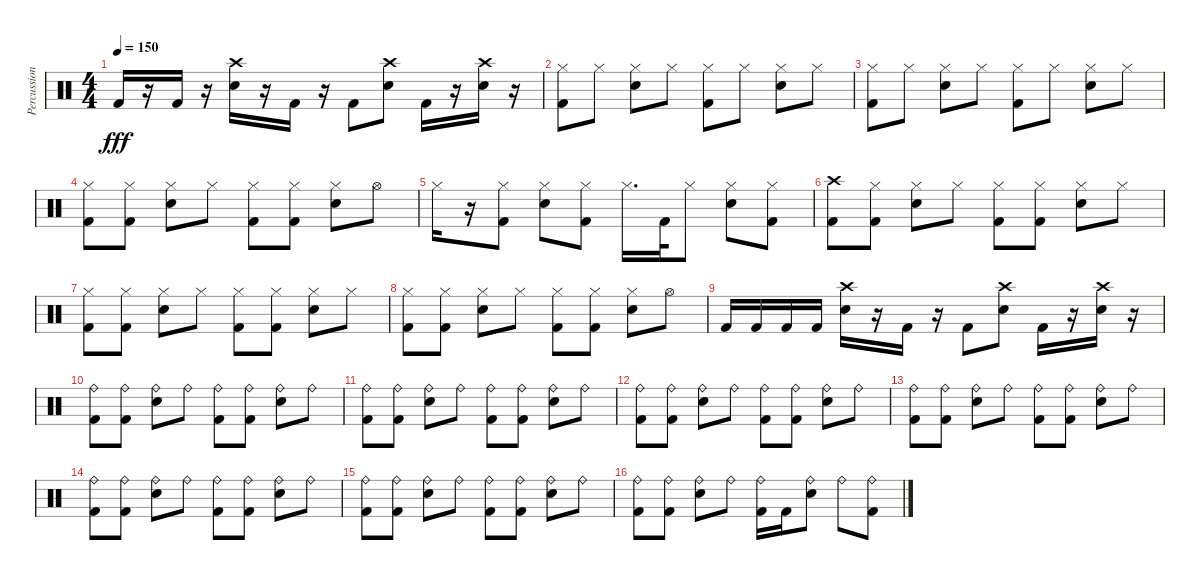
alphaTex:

\track ("Percussion" "Percussion") {instrument percussion}
\staff {score}
\articulation defaults
\ts (4 4)
\tempo 150
\clef neutral
\ks c "Kick (hit) 2".16{dy fff}
r.16 "Kick (hit) 2".16 r.16 ("Snare (hit) 2" "Crash high (hit)").16 r.16 "Kick (hit) 2".16 r.16 "Kick (hit) 2".8 ("Snare (hit) 2" "Crash high (hit)").8 "Kick (hit) 2".16 r.16 ("Snare (hit) 2" "Crash high (hit)").16 r.16 |
("Hi-Hat (closed)" "Kick (hit) 2").8 "Hi-Hat (closed)".8 ("Snare (hit) 2" "Hi-Hat (closed)").8 "Hi-Hat (closed)".8 ("Kick (hit) 2" "Hi-Hat (closed)").8 "Hi-Hat (closed)".8 ("Snare (hit) 2" "Hi-Hat (closed)").8 "Hi-Hat (closed)".8 |
("Kick (hit) 2" "Hi-Hat (closed)").8 "Hi-Hat (closed)".8 ("Snare (hit) 2" "Hi-Hat (closed)").8 "Hi-Hat (closed)".8 ("Kick (hit) 2" "Hi-Hat (closed)").8 "Hi-Hat (closed)".8 ("Snare (hit) 2" "Hi-Hat (closed)").8 "Hi-Hat (closed)".8 |
("Kick (hit) 2" "Hi-Hat (closed)").8 ("Kick (hit) 2" "Hi-Hat (closed)").8 ("Snare (hit) 2" "Hi-Hat (closed)").8 "Hi-Hat (closed)".8 ("Kick (hit) 2" "Hi-Hat (closed)").8 ("Kick (hit) 2" "Hi-Hat (closed)").8 ("Snare (hit) 2" "Hi-Hat (closed)").8 "Hi-Hat (open)".8 |
"Hi-Hat (closed)".16 r.16 ("Kick (hit) 2" "Hi-Hat (closed)").8 ("Snare (hit) 2" "Hi-Hat (closed)").8 ("Hi-Hat (closed)" "Kick (hit) 2").8 "Hi-Hat (closed)".16{d} "Kick (hit) 2".32 "Hi-Hat (closed)".8 ("Snare (hit) 2" "Hi-Hat (closed)").8 ("Hi-Hat (closed)" "Kick (hit) 2").8 |
("Kick (hit) 2" "Crash high (hit)").8 ("Kick (hit) 2" "Hi-Hat (closed)").8 ("Snare (hit) 2" "Hi-Hat (closed)").8 "Hi-Hat (closed)".8 ("Kick (hit) 2" "Hi-Hat (closed)").8 ("Kick (hit) 2" "Hi-Hat (closed)").8 ("Snare (hit) 2" "Hi-Hat (closed)").8 "Hi-Hat (closed)".8 |
("Kick (hit) 2" "Hi-Hat (closed)").8 ("Kick (hit) 2" "Hi-Hat (closed)").8 ("Snare (hit) 2" "Hi-Hat (closed)").8 "Hi-Hat (closed)".8 ("Kick (hit) 2" "Hi-Hat (closed)").8 ("Kick (hit) 2" "Hi-Hat (closed)").8 ("Snare (hit) 2" "Hi-Hat (closed)").8 "Hi-Hat (closed)".8 |
("Hi-Hat (closed)" "Kick (hit) 2").8 ("Kick (hit) 2" "Hi-Hat (closed)").8 ("Snare (hit) 2" "Hi-Hat (closed)").8 "Hi-Hat (closed)".8 ("Kick (hit) 2" "Hi-Hat (closed)").8 ("Kick (hit) 2" "Hi-Hat (closed)").8 ("Snare (hit) 2" "Hi-Hat (closed)").8 "Hi-Hat (open)".8 |
"Kick (hit) 2".16 "Kick (hit) 2".16 "Kick (hit) 2".16 "Kick (hit) 2".16 ("Snare (hit) 2" "Crash high (hit)").16 r.16 "Kick (hit) 2".16 r.16 "Kick (hit) 2".8 ("Snare (hit) 2" "Crash high (hit)").8 "Kick (hit) 2".16 r.16 ("Snare (hit) 2" "Crash high (hit)").16 r.16 |
("Ride (bell)" "Kick (hit) 2").8 ("Kick (hit) 2" "Ride (bell)").8 ("Snare (hit) 2" "Ride (bell)").8 "Ride (bell)".8 ("Kick (hit) 2" "Ride (bell)").8 ("Kick (hit) 2" "Ride (bell)").8 ("Snare (hit) 2" "Ride (bell)").8 "Ride (bell)".8 |
("Ride (bell)" "Kick (hit) 2").8 ("Kick (hit) 2" "Ride (bell)").8 ("Snare (hit) 2" "Ride (bell)").8 "Ride (bell)".8 ("Kick (hit) 2" "Ride (bell)").8 ("Kick (hit) 2" "Ride (bell)").8 ("Snare (hit) 2" "Ride (bell)").8 "Ride (bell)".8 |
("Ride (bell)" "Kick (hit) 2").8 ("Kick (hit) 2" "Ride (bell)").8 ("Snare (hit) 2" "Ride (bell)").8 "Ride (bell)".8 ("Kick (hit) 2" "Ride (bell)").8 ("Kick (hit) 2" "Ride (bell)").8 ("Snare (hit) 2" "Ride (bell)").8 "Ride (bell)".8 |
("Ride (bell)" "Kick (hit) 2").8 ("Kick (hit) 2" "Ride (bell)").8 ("Snare (hit) 2" "Ride (bell)").8 "Ride (bell)".8 ("Kick (hit) 2" "Ride (bell)").8 ("Kick (hit) 2" "Ride (bell)").8 ("Snare (hit) 2" "Ride (bell)").8 "Ride (bell)".8 |
("Ride (bell)" "Kick (hit) 2").8 ("Kick (hit) 2" "Ride (bell)").8 ("Snare (hit) 2" "Ride (bell)").8 "Ride (bell)".8 ("Kick (hit) 2" "Ride (bell)").8 ("Kick (hit) 2" "Ride (bell)").8 ("Snare (hit) 2" "Ride (bell)").8 "Ride (bell)".8 |
("Kick (hit) 2" "Ride (bell)").8 ("Kick (hit) 2" "Ride (bell)").8 ("Snare (hit) 2" "Ride (bell)").8 "Ride (bell)".8 ("Kick (hit) 2" "Ride (bell)").8 ("Kick (hit) 2" "Ride (bell)").8 ("Snare (hit) 2" "Ride (bell)").8 "Ride (bell)".8 |
("Kick (hit) 2" "Ride (bell)").8 ("Kick (hit) 2" "Ride (bell)").8 ("Snare (hit) 2" "Ride (bell)").8 "Ride (bell)".8 ("Ride (bell)" "Kick (hit) 2").16 "Kick (hit) 2".16 ("Ride (bell)" "Snare (hit) 2").8 "Ride (bell)".8 ("Ride (bell)" "Kick (hit) 2").8
